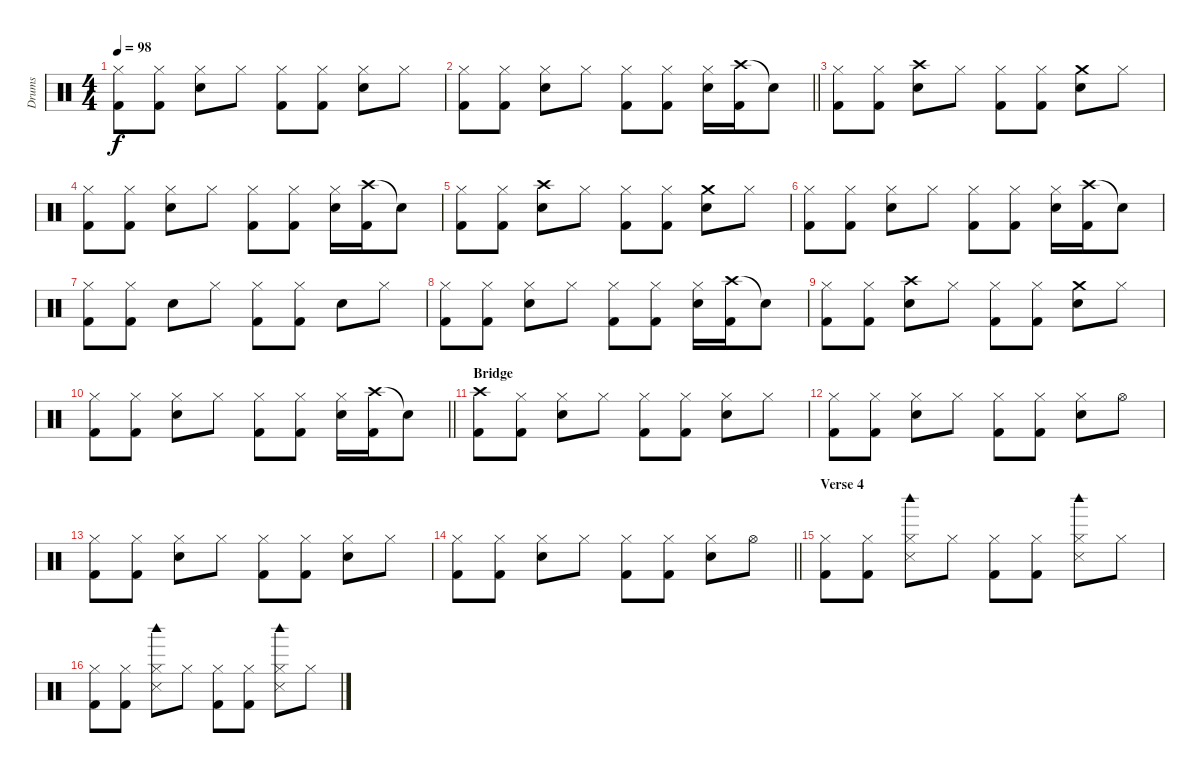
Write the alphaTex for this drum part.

\track ("Drums" "Drums") {instrument percussion}
\staff {score}
\articulation defaults
\ts (4 4)
\tempo 98
\clef neutral
\ks c
("Hi-Hat (closed)" "Kick (hit) 2").8{dy f} ("Hi-Hat (closed)" "Kick (hit) 2").8 ("Hi-Hat (closed)" "Snare (hit) 2").8 "Hi-Hat (closed)".8 ("Hi-Hat (closed)" "Kick (hit) 2").8 ("Hi-Hat (closed)" "Kick (hit) 2").8 ("Hi-Hat (closed)" "Snare (hit) 2").8 "Hi-Hat (closed)".8 |
\barLineRight lightlight
("Hi-Hat (closed)" "Kick (hit) 2").8 ("Hi-Hat (closed)" "Kick (hit) 2").8 ("Hi-Hat (closed)" "Snare (hit) 2").8 "Hi-Hat (closed)".8 ("Hi-Hat (closed)" "Kick (hit) 2").8 ("Hi-Hat (closed)" "Kick (hit) 2").8 ("Hi-Hat (closed)" "Snare (hit) 2").16 ("Crash high (hit)" "Kick (hit) 2").16 "Snare (hit)"{t}.8 |
("Hi-Hat (closed)" "Kick (hit) 2").8 ("Hi-Hat (closed)" "Kick (hit) 2").8 ("Crash high (hit)" "Snare (hit) 2").8 "Hi-Hat (closed)".8 ("Hi-Hat (closed)" "Kick (hit) 2").8 ("Hi-Hat (closed)" "Kick (hit) 2").8 ("Crash medium (hit)" "Snare (hit) 2").8 "Hi-Hat (closed)".8 |
("Hi-Hat (closed)" "Kick (hit) 2").8 ("Hi-Hat (closed)" "Kick (hit) 2").8 ("Hi-Hat (closed)" "Snare (hit) 2").8 "Hi-Hat (closed)".8 ("Hi-Hat (closed)" "Kick (hit) 2").8 ("Hi-Hat (closed)" "Kick (hit) 2").8 ("Hi-Hat (closed)" "Snare (hit) 2").16 ("Crash high (hit)" "Kick (hit) 2").16 "Snare (hit)"{t}.8 |
("Hi-Hat (closed)" "Kick (hit) 2").8 ("Hi-Hat (closed)" "Kick (hit) 2").8 ("Crash high (hit)" "Snare (hit) 2").8 "Hi-Hat (closed)".8 ("Hi-Hat (closed)" "Kick (hit) 2").8 ("Hi-Hat (closed)" "Kick (hit) 2").8 ("Crash medium (hit)" "Snare (hit) 2").8 "Hi-Hat (closed)".8 |
("Hi-Hat (closed)" "Kick (hit) 2").8 ("Hi-Hat (closed)" "Kick (hit) 2").8 ("Hi-Hat (closed)" "Snare (hit) 2").8 "Hi-Hat (closed)".8 ("Hi-Hat (closed)" "Kick (hit) 2").8 ("Hi-Hat (closed)" "Kick (hit) 2").8 ("Hi-Hat (closed)" "Snare (hit) 2").16 ("Crash high (hit)" "Kick (hit) 2").16 "Snare (hit)"{t}.8 |
("Hi-Hat (closed)" "Kick (hit) 2").8 ("Hi-Hat (closed)" "Kick (hit) 2").8 "Snare (hit) 2".8 "Hi-Hat (closed)".8 ("Hi-Hat (closed)" "Kick (hit) 2").8 ("Hi-Hat (closed)" "Kick (hit) 2").8 "Snare (hit) 2".8 "Hi-Hat (closed)".8 |
("Hi-Hat (closed)" "Kick (hit) 2").8 ("Hi-Hat (closed)" "Kick (hit) 2").8 ("Hi-Hat (closed)" "Snare (hit) 2").8 "Hi-Hat (closed)".8 ("Hi-Hat (closed)" "Kick (hit) 2").8 ("Hi-Hat (closed)" "Kick (hit) 2").8 ("Hi-Hat (closed)" "Snare (hit) 2").16 ("Crash high (hit)" "Kick (hit) 2").16 "Snare (hit)"{t}.8 |
("Hi-Hat (closed)" "Kick (hit) 2").8 ("Hi-Hat (closed)" "Kick (hit) 2").8 ("Crash high (hit)" "Snare (hit) 2").8 "Hi-Hat (closed)".8 ("Hi-Hat (closed)" "Kick (hit) 2").8 ("Hi-Hat (closed)" "Kick (hit) 2").8 ("Crash medium (hit)" "Snare (hit) 2").8 "Hi-Hat (closed)".8 |
\barLineRight lightlight
("Hi-Hat (closed)" "Kick (hit) 2").8 ("Hi-Hat (closed)" "Kick (hit) 2").8 ("Hi-Hat (closed)" "Snare (hit) 2").8 "Hi-Hat (closed)".8 ("Hi-Hat (closed)" "Kick (hit) 2").8 ("Hi-Hat (closed)" "Kick (hit) 2").8 ("Hi-Hat (closed)" "Snare (hit) 2").16 ("Crash high (hit)" "Kick (hit) 2").16 "Snare (hit)"{t}.8 |
\section ("" "Bridge")
("Crash high (hit)" "Kick (hit) 2").8 ("Hi-Hat (closed)" "Kick (hit) 2").8 ("Hi-Hat (closed)" "Snare (hit) 2").8 "Hi-Hat (closed)".8 ("Hi-Hat (closed)" "Kick (hit) 2").8 ("Hi-Hat (closed)" "Kick (hit) 2").8 ("Hi-Hat (closed)" "Snare (hit) 2").8 "Hi-Hat (closed)".8 |
("Hi-Hat (closed)" "Kick (hit) 2").8 ("Hi-Hat (closed)" "Kick (hit) 2").8 ("Hi-Hat (closed)" "Snare (hit) 2").8 "Hi-Hat (closed)".8 ("Hi-Hat (closed)" "Kick (hit) 2").8 ("Hi-Hat (closed)" "Kick (hit) 2").8 ("Hi-Hat (closed)" "Snare (hit) 2").8 "Hi-Hat (open)".8 |
("Hi-Hat (closed)" "Kick (hit) 2").8 ("Hi-Hat (closed)" "Kick (hit) 2").8 ("Hi-Hat (closed)" "Snare (hit) 2").8 "Hi-Hat (closed)".8 ("Hi-Hat (closed)" "Kick (hit) 2").8 ("Hi-Hat (closed)" "Kick (hit) 2").8 ("Hi-Hat (closed)" "Snare (hit) 2").8 "Hi-Hat (closed)".8 |
\barLineRight lightlight
("Hi-Hat (closed)" "Kick (hit) 2").8 ("Hi-Hat (closed)" "Kick (hit) 2").8 ("Hi-Hat (closed)" "Snare (hit) 2").8 "Hi-Hat (closed)".8 ("Hi-Hat (closed)" "Kick (hit) 2").8 ("Hi-Hat (closed)" "Kick (hit) 2").8 ("Hi-Hat (closed)" "Snare (hit) 2").8 "Hi-Hat (open)".8 |
\section ("" "Verse 4")
("Hi-Hat (closed)" "Kick (hit) 2").8 ("Hi-Hat (closed)" "Kick (hit) 2").8 ("Hi-Hat (closed)" "Metronome (hit)" "Woodblock high (hit)").8 "Hi-Hat (closed)".8 ("Hi-Hat (closed)" "Kick (hit) 2").8 ("Hi-Hat (closed)" "Kick (hit) 2").8 ("Hi-Hat (closed)" "Metronome (hit)" "Woodblock high (hit)").8 "Hi-Hat (closed)".8 |
("Hi-Hat (closed)" "Kick (hit) 2").8 ("Hi-Hat (closed)" "Kick (hit) 2").8 ("Hi-Hat (closed)" "Metronome (hit)" "Woodblock high (hit)").8 "Hi-Hat (closed)".8 ("Hi-Hat (closed)" "Kick (hit) 2").8 ("Hi-Hat (closed)" "Kick (hit) 2").8 ("Hi-Hat (closed)" "Metronome (hit)" "Woodblock high (hit)").8 "Hi-Hat (closed)".8
